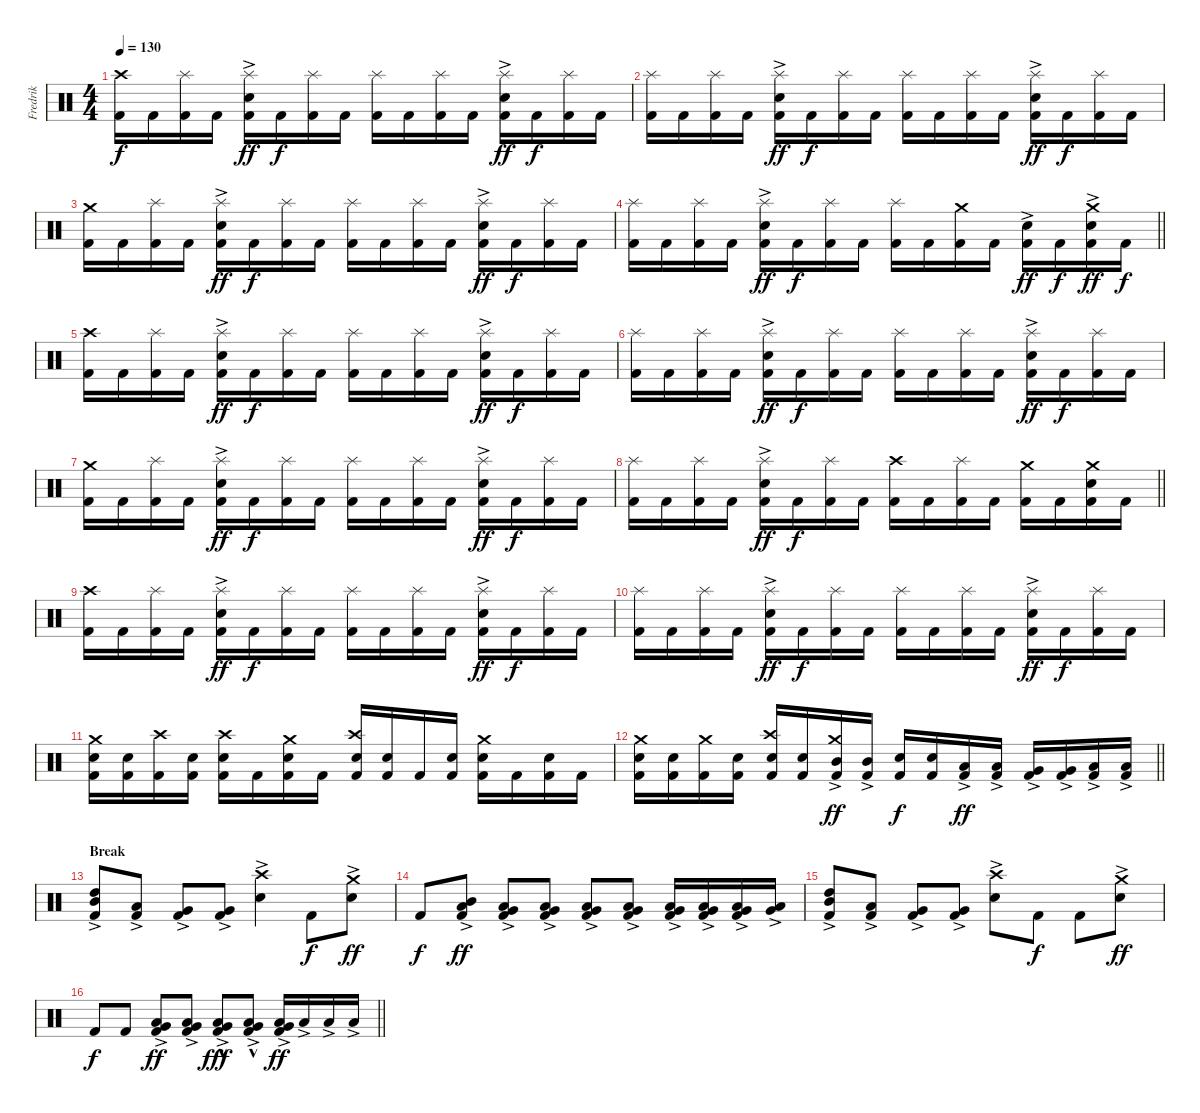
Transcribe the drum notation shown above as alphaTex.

\track ("Fredrik" "Fredrik") {instrument percussion}
\staff {score}
\articulation defaults
\ts (4 4)
\section ("" "")
\tempo 130
\clef neutral
\ks c
("Kick (hit) 2" "Crash high (hit)").16{dy f} "Kick (hit) 2".16 ("Kick (hit) 2" "Splash (hit)").16 "Kick (hit) 2".16 ("Kick (hit) 2" "Snare (hit) 2"{ac} "Splash (hit)").16{dy ff} "Kick (hit) 2".16{dy f} ("Kick (hit) 2" "Splash (hit)").16 "Kick (hit) 2".16 ("Kick (hit) 2" "Splash (hit)").16 "Kick (hit) 2".16 ("Kick (hit) 2" "Splash (hit)").16 "Kick (hit) 2".16 ("Kick (hit) 2" "Snare (hit) 2"{ac} "Splash (hit)").16{dy ff} "Kick (hit) 2".16{dy f} ("Kick (hit) 2" "Splash (hit)").16 "Kick (hit) 2".16 |
("Kick (hit) 2" "Splash (hit)").16 "Kick (hit) 2".16 ("Kick (hit) 2" "Splash (hit)").16 "Kick (hit) 2".16 ("Kick (hit) 2" "Snare (hit) 2"{ac} "Splash (hit)").16{dy ff} "Kick (hit) 2".16{dy f} ("Kick (hit) 2" "Splash (hit)").16 "Kick (hit) 2".16 ("Kick (hit) 2" "Splash (hit)").16 "Kick (hit) 2".16 ("Kick (hit) 2" "Splash (hit)").16 "Kick (hit) 2".16 ("Kick (hit) 2" "Snare (hit) 2"{ac} "Splash (hit)").16{dy ff} "Kick (hit) 2".16{dy f} ("Kick (hit) 2" "Splash (hit)").16 "Kick (hit) 2".16 |
("Kick (hit) 2" "Crash medium (hit)").16 "Kick (hit) 2".16 ("Kick (hit) 2" "Splash (hit)").16 "Kick (hit) 2".16 ("Kick (hit) 2" "Snare (hit) 2"{ac} "Splash (hit)").16{dy ff} "Kick (hit) 2".16{dy f} ("Kick (hit) 2" "Splash (hit)").16 "Kick (hit) 2".16 ("Kick (hit) 2" "Splash (hit)").16 "Kick (hit) 2".16 ("Kick (hit) 2" "Splash (hit)").16 "Kick (hit) 2".16 ("Kick (hit) 2" "Snare (hit) 2"{ac} "Splash (hit)").16{dy ff} "Kick (hit) 2".16{dy f} ("Kick (hit) 2" "Splash (hit)").16 "Kick (hit) 2".16 |
\barLineRight lightlight
("Kick (hit) 2" "Splash (hit)").16 "Kick (hit) 2".16 ("Kick (hit) 2" "Splash (hit)").16 "Kick (hit) 2".16 ("Kick (hit) 2" "Snare (hit) 2"{ac} "Splash (hit)").16{dy ff} "Kick (hit) 2".16{dy f} ("Kick (hit) 2" "Splash (hit)").16 "Kick (hit) 2".16 ("Kick (hit) 2" "Splash (hit)").16 "Kick (hit) 2".16 ("Kick (hit) 2" "Crash medium (hit)").16 "Kick (hit) 2".16 ("Kick (hit) 2" "Snare (hit) 2"{ac}).16{dy ff} "Kick (hit) 2".16{dy f} ("Kick (hit) 2" "Snare (hit) 2"{ac} "Crash medium (hit)").16{dy ff} "Kick (hit) 2".16{dy f} |
\section ("" "")
("Kick (hit) 2" "Crash high (hit)").16 "Kick (hit) 2".16 ("Kick (hit) 2" "Splash (hit)").16 "Kick (hit) 2".16 ("Kick (hit) 2" "Snare (hit) 2"{ac} "Splash (hit)").16{dy ff} "Kick (hit) 2".16{dy f} ("Kick (hit) 2" "Splash (hit)").16 "Kick (hit) 2".16 ("Kick (hit) 2" "Splash (hit)").16 "Kick (hit) 2".16 ("Kick (hit) 2" "Splash (hit)").16 "Kick (hit) 2".16 ("Kick (hit) 2" "Snare (hit) 2"{ac} "Splash (hit)").16{dy ff} "Kick (hit) 2".16{dy f} ("Kick (hit) 2" "Splash (hit)").16 "Kick (hit) 2".16 |
("Kick (hit) 2" "Splash (hit)").16 "Kick (hit) 2".16 ("Kick (hit) 2" "Splash (hit)").16 "Kick (hit) 2".16 ("Kick (hit) 2" "Snare (hit) 2"{ac} "Splash (hit)").16{dy ff} "Kick (hit) 2".16{dy f} ("Kick (hit) 2" "Splash (hit)").16 "Kick (hit) 2".16 ("Kick (hit) 2" "Splash (hit)").16 "Kick (hit) 2".16 ("Kick (hit) 2" "Splash (hit)").16 "Kick (hit) 2".16 ("Kick (hit) 2" "Snare (hit) 2"{ac} "Splash (hit)").16{dy ff} "Kick (hit) 2".16{dy f} ("Kick (hit) 2" "Splash (hit)").16 "Kick (hit) 2".16 |
("Kick (hit) 2" "Crash medium (hit)").16 "Kick (hit) 2".16 ("Kick (hit) 2" "Splash (hit)").16 "Kick (hit) 2".16 ("Kick (hit) 2" "Snare (hit) 2"{ac} "Splash (hit)").16{dy ff} "Kick (hit) 2".16{dy f} ("Kick (hit) 2" "Splash (hit)").16 "Kick (hit) 2".16 ("Kick (hit) 2" "Splash (hit)").16 "Kick (hit) 2".16 ("Kick (hit) 2" "Splash (hit)").16 "Kick (hit) 2".16 ("Kick (hit) 2" "Snare (hit) 2"{ac} "Splash (hit)").16{dy ff} "Kick (hit) 2".16{dy f} ("Kick (hit) 2" "Splash (hit)").16 "Kick (hit) 2".16 |
\barLineRight lightlight
("Kick (hit) 2" "Splash (hit)").16 "Kick (hit) 2".16 ("Kick (hit) 2" "Splash (hit)").16 "Kick (hit) 2".16 ("Kick (hit) 2" "Snare (hit) 2"{ac} "Splash (hit)").16{dy ff} "Kick (hit) 2".16{dy f} ("Kick (hit) 2" "Splash (hit)").16 "Kick (hit) 2".16 ("Kick (hit) 2" "Crash high (hit)").16 "Kick (hit) 2".16 ("Kick (hit) 2" "Splash (hit)").16 "Kick (hit) 2".16 ("Kick (hit) 2" "Crash medium (hit)").16 "Kick (hit) 2".16 ("Kick (hit) 2" "Snare (hit) 2" "Crash medium (hit)").16 "Kick (hit) 2".16 |
\section ("" "")
("Kick (hit) 2" "Crash high (hit)").16 "Kick (hit) 2".16 ("Kick (hit) 2" "Splash (hit)").16 "Kick (hit) 2".16 ("Kick (hit) 2" "Snare (hit) 2"{ac} "Splash (hit)").16{dy ff} "Kick (hit) 2".16{dy f} ("Kick (hit) 2" "Splash (hit)").16 "Kick (hit) 2".16 ("Kick (hit) 2" "Splash (hit)").16 "Kick (hit) 2".16 ("Kick (hit) 2" "Splash (hit)").16 "Kick (hit) 2".16 ("Kick (hit) 2" "Snare (hit) 2"{ac} "Splash (hit)").16{dy ff} "Kick (hit) 2".16{dy f} ("Kick (hit) 2" "Splash (hit)").16 "Kick (hit) 2".16 |
("Kick (hit) 2" "Splash (hit)").16 "Kick (hit) 2".16 ("Kick (hit) 2" "Splash (hit)").16 "Kick (hit) 2".16 ("Kick (hit) 2" "Snare (hit) 2"{ac} "Splash (hit)").16{dy ff} "Kick (hit) 2".16{dy f} ("Kick (hit) 2" "Splash (hit)").16 "Kick (hit) 2".16 ("Kick (hit) 2" "Splash (hit)").16 "Kick (hit) 2".16 ("Kick (hit) 2" "Splash (hit)").16 "Kick (hit) 2".16 ("Kick (hit) 2" "Snare (hit) 2"{ac} "Splash (hit)").16{dy ff} "Kick (hit) 2".16{dy f} ("Kick (hit) 2" "Splash (hit)").16 "Kick (hit) 2".16 |
("Kick (hit) 2" "Snare (hit) 2" "Crash medium (hit)").16 ("Kick (hit) 2" "Snare (hit) 2").16 ("Kick (hit) 2" "Crash high (hit)").16 ("Kick (hit) 2" "Snare (hit) 2").16 ("Kick (hit) 2" "Snare (hit) 2" "Crash high (hit)").16 "Kick (hit) 2".16 ("Kick (hit) 2" "Snare (hit) 2" "Crash medium (hit)").16 "Kick (hit) 2".16 ("Kick (hit) 2" "Snare (hit) 2" "Crash high (hit)").16 ("Kick (hit) 2" "Snare (hit) 2").16 "Kick (hit) 2".16 ("Kick (hit) 2" "Snare (hit) 2").16 ("Kick (hit) 2" "Snare (hit) 2" "Crash medium (hit)").16 "Kick (hit) 2".16 ("Kick (hit) 2" "Snare (hit) 2").16 "Kick (hit) 2".16 |
\barLineRight lightlight
("Kick (hit) 2" "Snare (hit) 2" "Crash medium (hit)").16 ("Kick (hit) 2" "Snare (hit) 2").16 ("Kick (hit) 2" "Crash medium (hit)").16 ("Kick (hit) 2" "Snare (hit) 2").16 ("Kick (hit) 2" "Snare (hit) 2" "Crash high (hit)").16 ("Kick (hit) 2" "Snare (hit) 2").16 ("Kick (hit) 2" "Mid Tom (hit)"{ac} "Crash medium (hit)").16{dy ff} ("Kick (hit) 2" "Mid Tom (hit)"{ac}).16 ("Kick (hit) 2" "Snare (hit) 2").16{dy f} ("Kick (hit) 2" "Snare (hit) 2").16 ("Kick (hit) 2" "Low Tom (hit)"{ac}).16{dy ff} ("Kick (hit) 2" "Low Tom (hit)"{ac}).16 ("Kick (hit) 2" "Very Low Tom (hit)"{ac}).16 ("Kick (hit) 2" "Very Low Tom (hit)"{ac}).16 ("Kick (hit) 2" "Low Floor Tom (hit)"{ac}).16 ("Kick (hit) 2" "Low Floor Tom (hit)"{ac}).16 |
\section ("" "Break")
("Kick (hit) 2" "High Tom (hit)" "Mid Tom (hit)"{ac}).8 ("Kick (hit) 2" "Low Tom (hit)"{ac}).8 ("Kick (hit) 2" "Very Low Tom (hit)"{ac}).8 ("Kick (hit) 2" "Very Low Tom (hit)"{ac}).8 ("Snare (hit) 2"{ac} "Crash high (hit)").4 "Kick (hit) 2".8{dy f} ("Snare (hit) 2"{ac} "Crash medium (hit)").8{dy ff} |
"Kick (hit) 2".8{dy f} ("Kick (hit) 2" "Mid Tom (hit)" "Low Tom (hit)"{ac}).8{dy ff} ("Kick (hit) 2" "Low Tom (hit)" "Very Low Tom (hit)"{ac}).8 ("Kick (hit) 2" "Very Low Tom (hit)" "Low Floor Tom (hit)"{ac}).8 ("Kick (hit) 2" "Very Low Tom (hit)" "Low Floor Tom (hit)"{ac}).8 ("Kick (hit) 2" "Very Low Tom (hit)" "Low Floor Tom (hit)"{ac}).8 ("Kick (hit) 2" "Very Low Tom (hit)" "Low Floor Tom (hit)"{ac}).16 ("Kick (hit) 2" "Very Low Tom (hit)" "Low Floor Tom (hit)"{ac}).16 ("Kick (hit) 2" "Very Low Tom (hit)" "Low Floor Tom (hit)"{ac}).16 ("Very Low Tom (hit)" "Low Floor Tom (hit)"{ac}).16 |
("Kick (hit) 2" "High Tom (hit)" "Mid Tom (hit)"{ac}).8 ("Kick (hit) 2" "Low Tom (hit)"{ac}).8 ("Kick (hit) 2" "Very Low Tom (hit)"{ac}).8 ("Kick (hit) 2" "Very Low Tom (hit)"{ac}).8 ("Snare (hit) 2"{ac} "Crash high (hit)").8 "Kick (hit) 2".8{dy f} "Kick (hit) 2".8 ("Snare (hit) 2"{ac} "Crash medium (hit)").8{dy ff} |
\barLineRight lightlight "Kick (hit) 2".8{dy f} "Kick (hit) 2".8
("Kick (hit) 2" "Low Tom (hit)" "Very Low Tom (hit)"{ac}).8{dy ff} ("Kick (hit) 2" "Very Low Tom (hit)" "Low Floor Tom (hit)"{ac}).8 ("Kick (hit) 2" "Very Low Tom (hit)"{ac} "Low Floor Tom (hit)"{hac}).8{dy fff} ("Kick (hit) 2" "Very Low Tom (hit)"{ac} "Low Floor Tom (hit)"{hac}).8 ("Kick (hit) 2" "Very Low Tom (hit)"{ac} "Low Floor Tom (hit)"{ac}).16{dy ff} "Low Floor Tom (hit)"{ac}.16 "Low Floor Tom (hit)"{ac}.16 "Low Floor Tom (hit)"{ac}.16
